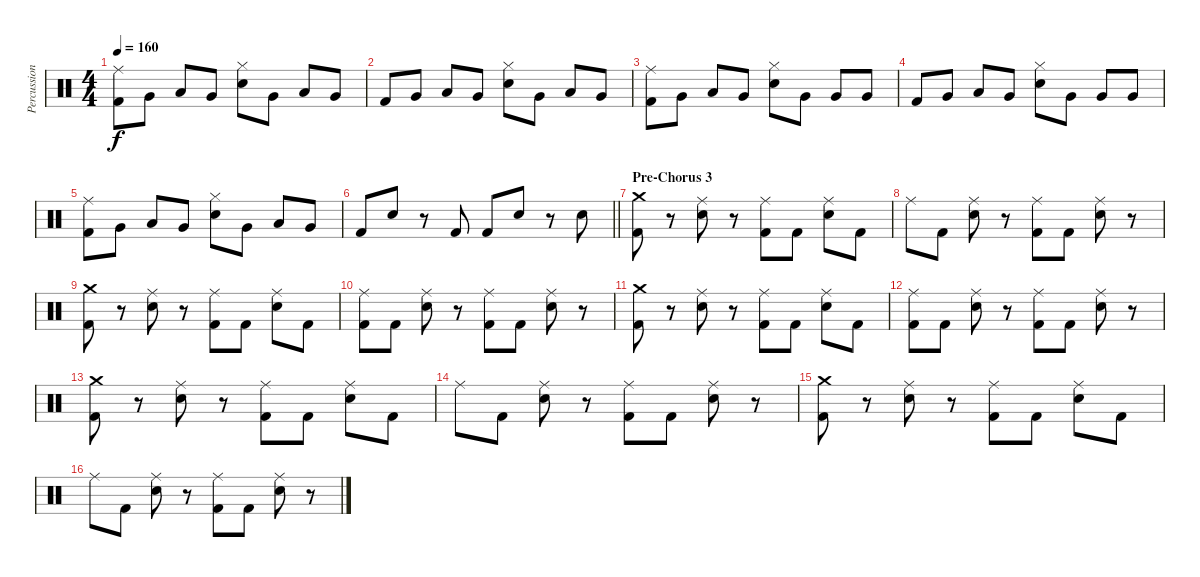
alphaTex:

\track ("Percussion" "Percussion") {instrument percussion}
\staff {score}
\articulation defaults
\ts (4 4)
\tempo 160
\clef neutral
\ks c
("Ride (middle)" "Kick (hit) 2").8{dy f} "Very Low Tom (hit)".8 "Low Floor Tom (hit)".8 "Very Low Tom (hit)".8 ("Hi-Hat (closed)" "Electric Snare (hit)").8 "Very Low Tom (hit)".8 "Low Floor Tom (hit)".8 "Very Low Tom (hit)".8 |
"Kick (hit) 2".8 "Very Low Tom (hit)".8 "Low Floor Tom (hit)".8 "Very Low Tom (hit)".8 ("Hi-Hat (closed)" "Electric Snare (hit)").8 "Very Low Tom (hit)".8 "Low Floor Tom (hit)".8 "Very Low Tom (hit)".8 |
("Ride (middle)" "Kick (hit) 2").8 "Very Low Tom (hit)".8 "Low Floor Tom (hit)".8 "Very Low Tom (hit)".8 ("Hi-Hat (closed)" "Electric Snare (hit)").8 "Very Low Tom (hit)".8 "Very Low Tom (hit)".8 "Very Low Tom (hit)".8 |
"Kick (hit) 2".8 "Very Low Tom (hit)".8 "Low Floor Tom (hit)".8 "Very Low Tom (hit)".8 ("Hi-Hat (closed)" "Electric Snare (hit)").8 "Very Low Tom (hit)".8 "Very Low Tom (hit)".8 "Very Low Tom (hit)".8 |
("Ride (middle)" "Kick (hit) 2").8 "Very Low Tom (hit)".8 "Low Floor Tom (hit)".8 "Very Low Tom (hit)".8 ("Hi-Hat (closed)" "Electric Snare (hit)").8 "Very Low Tom (hit)".8 "Low Floor Tom (hit)".8 "Very Low Tom (hit)".8 |
\barLineRight lightlight "Kick (hit) 2".8 "Electric Snare (hit)".8
r.8 "Kick (hit) 2".8 "Kick (hit) 2".8 "Electric Snare (hit)".8 r.8 "Electric Snare (hit)".8 |
\section ("" "Pre-Chorus 3")
("Crash medium (hit)" "Kick (hit) 2").8 r.8 ("Ride (middle)" "Electric Snare (hit)").8 r.8 ("Ride (middle)" "Kick (hit) 2").8 "Kick (hit) 2".8 ("Ride (middle)" "Electric Snare (hit)").8 "Kick (hit) 2".8 |
"Ride (middle)".8 "Kick (hit) 2".8 ("Ride (middle)" "Electric Snare (hit)").8 r.8 ("Ride (middle)" "Kick (hit) 2").8 "Kick (hit) 2".8 ("Ride (middle)" "Electric Snare (hit)").8 r.8 |
("Crash medium (hit)" "Kick (hit) 2").8 r.8 ("Ride (middle)" "Electric Snare (hit)").8 r.8 ("Ride (middle)" "Kick (hit) 2").8 "Kick (hit) 2".8 ("Ride (middle)" "Electric Snare (hit)").8 "Kick (hit) 2".8 |
("Ride (middle)" "Kick (hit) 2").8 "Kick (hit) 2".8 ("Ride (middle)" "Electric Snare (hit)").8 r.8 ("Ride (middle)" "Kick (hit) 2").8 "Kick (hit) 2".8 ("Ride (middle)" "Electric Snare (hit)").8 r.8 |
("Crash medium (hit)" "Kick (hit) 2").8 r.8 ("Ride (middle)" "Electric Snare (hit)").8 r.8 ("Ride (middle)" "Kick (hit) 2").8 "Kick (hit) 2".8 ("Ride (middle)" "Electric Snare (hit)").8 "Kick (hit) 2".8 |
("Ride (middle)" "Kick (hit) 2").8 "Kick (hit) 2".8 ("Ride (middle)" "Electric Snare (hit)").8 r.8 ("Ride (middle)" "Kick (hit) 2").8 "Kick (hit) 2".8 ("Ride (middle)" "Electric Snare (hit)").8 r.8 |
("Crash medium (hit)" "Kick (hit) 2").8 r.8 ("Ride (middle)" "Electric Snare (hit)").8 r.8 ("Ride (middle)" "Kick (hit) 2").8 "Kick (hit) 2".8 ("Ride (middle)" "Electric Snare (hit)").8 "Kick (hit) 2".8 |
"Ride (middle)".8 "Kick (hit) 2".8 ("Ride (middle)" "Electric Snare (hit)").8 r.8 ("Ride (middle)" "Kick (hit) 2").8 "Kick (hit) 2".8 ("Ride (middle)" "Electric Snare (hit)").8 r.8 |
("Crash medium (hit)" "Kick (hit) 2").8 r.8 ("Ride (middle)" "Electric Snare (hit)").8 r.8 ("Ride (middle)" "Kick (hit) 2").8 "Kick (hit) 2".8 ("Ride (middle)" "Electric Snare (hit)").8 "Kick (hit) 2".8 |
"Ride (middle)".8 "Kick (hit) 2".8 ("Ride (middle)" "Electric Snare (hit)").8 r.8 ("Ride (middle)" "Kick (hit) 2").8 "Kick (hit) 2".8 ("Ride (middle)" "Electric Snare (hit)").8 r.8
